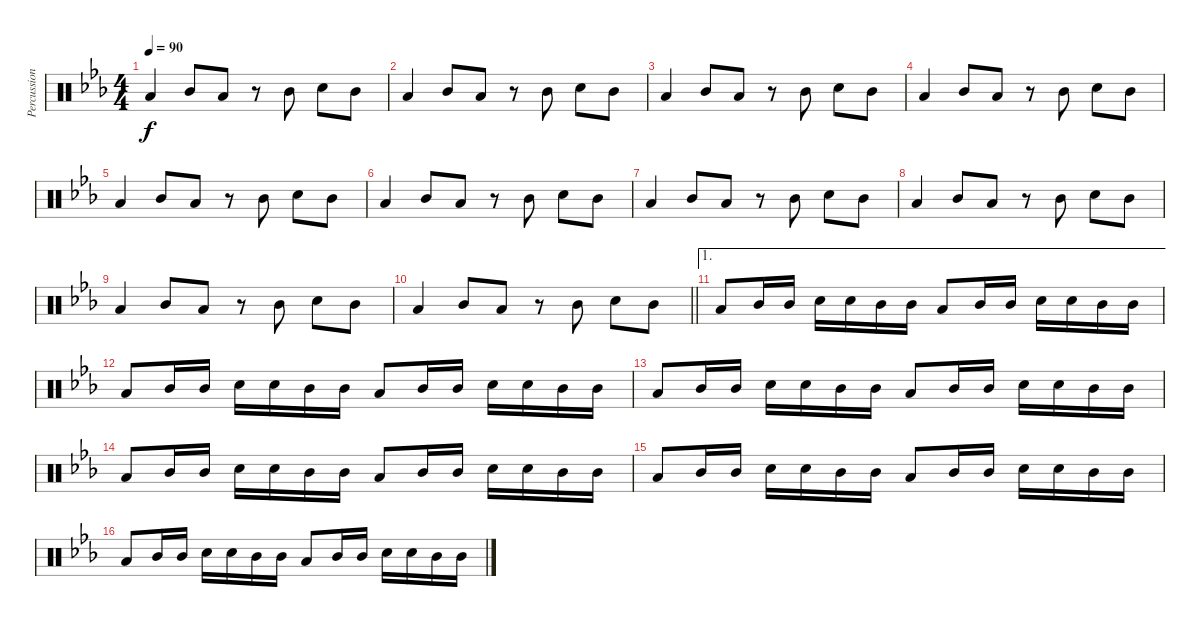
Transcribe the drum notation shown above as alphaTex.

\track ("Percussion" "Percussion") {instrument percussion}
\staff {score}
\articulation defaults
\ts (4 4)
\tempo 90
\clef neutral
\ks eb "Low Floor Tom (hit)".4{dy f} "Mid Tom (hit)".8 "Low Floor Tom (hit)".8
r.8 "Mid Tom (hit)".8 "Snare (hit) 2".8 "Mid Tom (hit)".8 |
"Low Floor Tom (hit)".4 "Mid Tom (hit)".8 "Low Floor Tom (hit)".8 r.8 "Mid Tom (hit)".8 "Snare (hit) 2".8 "Mid Tom (hit)".8 |
"Low Floor Tom (hit)".4 "Mid Tom (hit)".8 "Low Floor Tom (hit)".8 r.8 "Mid Tom (hit)".8 "Snare (hit) 2".8 "Mid Tom (hit)".8 |
"Low Floor Tom (hit)".4 "Mid Tom (hit)".8 "Low Floor Tom (hit)".8 r.8 "Mid Tom (hit)".8 "Snare (hit) 2".8 "Mid Tom (hit)".8 |
"Low Floor Tom (hit)".4 "Mid Tom (hit)".8 "Low Floor Tom (hit)".8 r.8 "Mid Tom (hit)".8 "Snare (hit) 2".8 "Mid Tom (hit)".8 |
"Low Floor Tom (hit)".4 "Mid Tom (hit)".8 "Low Floor Tom (hit)".8 r.8 "Mid Tom (hit)".8 "Snare (hit) 2".8 "Mid Tom (hit)".8 |
"Low Floor Tom (hit)".4 "Mid Tom (hit)".8 "Low Floor Tom (hit)".8 r.8 "Mid Tom (hit)".8 "Snare (hit) 2".8 "Mid Tom (hit)".8 |
"Low Floor Tom (hit)".4 "Mid Tom (hit)".8 "Low Floor Tom (hit)".8 r.8 "Mid Tom (hit)".8 "Snare (hit) 2".8 "Mid Tom (hit)".8 |
"Low Floor Tom (hit)".4 "Mid Tom (hit)".8 "Low Floor Tom (hit)".8 r.8 "Mid Tom (hit)".8 "Snare (hit) 2".8 "Mid Tom (hit)".8 |
\barLineRight lightlight "Low Floor Tom (hit)".4 "Mid Tom (hit)".8 "Low Floor Tom (hit)".8
r.8 "Mid Tom (hit)".8 "Snare (hit) 2".8 "Mid Tom (hit)".8 |
\ae 1 "Low Floor Tom (hit)".8 "Mid Tom (hit)".16 "Mid Tom (hit)".16 "Snare (hit) 2".16 "Snare (hit) 2".16 "Mid Tom (hit)".16 "Mid Tom (hit)".16 "Low Floor Tom (hit)".8 "Mid Tom (hit)".16 "Mid Tom (hit)".16 "Snare (hit) 2".16 "Snare (hit) 2".16 "Mid Tom (hit)".16 "Mid Tom (hit)".16
|
"Low Floor Tom (hit)".8 "Mid Tom (hit)".16 "Mid Tom (hit)".16 "Snare (hit) 2".16 "Snare (hit) 2".16 "Mid Tom (hit)".16 "Mid Tom (hit)".16 "Low Floor Tom (hit)".8 "Mid Tom (hit)".16 "Mid Tom (hit)".16 "Snare (hit) 2".16 "Snare (hit) 2".16 "Mid Tom (hit)".16 "Mid Tom (hit)".16 |
"Low Floor Tom (hit)".8 "Mid Tom (hit)".16 "Mid Tom (hit)".16 "Snare (hit) 2".16 "Snare (hit) 2".16 "Mid Tom (hit)".16 "Mid Tom (hit)".16 "Low Floor Tom (hit)".8 "Mid Tom (hit)".16 "Mid Tom (hit)".16 "Snare (hit) 2".16 "Snare (hit) 2".16 "Mid Tom (hit)".16 "Mid Tom (hit)".16 |
"Low Floor Tom (hit)".8 "Mid Tom (hit)".16 "Mid Tom (hit)".16 "Snare (hit) 2".16 "Snare (hit) 2".16 "Mid Tom (hit)".16 "Mid Tom (hit)".16 "Low Floor Tom (hit)".8 "Mid Tom (hit)".16 "Mid Tom (hit)".16 "Snare (hit) 2".16 "Snare (hit) 2".16 "Mid Tom (hit)".16 "Mid Tom (hit)".16 |
"Low Floor Tom (hit)".8 "Mid Tom (hit)".16 "Mid Tom (hit)".16 "Snare (hit) 2".16 "Snare (hit) 2".16 "Mid Tom (hit)".16 "Mid Tom (hit)".16 "Low Floor Tom (hit)".8 "Mid Tom (hit)".16 "Mid Tom (hit)".16 "Snare (hit) 2".16 "Snare (hit) 2".16 "Mid Tom (hit)".16 "Mid Tom (hit)".16 |
"Low Floor Tom (hit)".8 "Mid Tom (hit)".16 "Mid Tom (hit)".16 "Snare (hit) 2".16 "Snare (hit) 2".16 "Mid Tom (hit)".16 "Mid Tom (hit)".16 "Low Floor Tom (hit)".8 "Mid Tom (hit)".16 "Mid Tom (hit)".16 "Snare (hit) 2".16 "Snare (hit) 2".16 "Mid Tom (hit)".16 "Mid Tom (hit)".16
